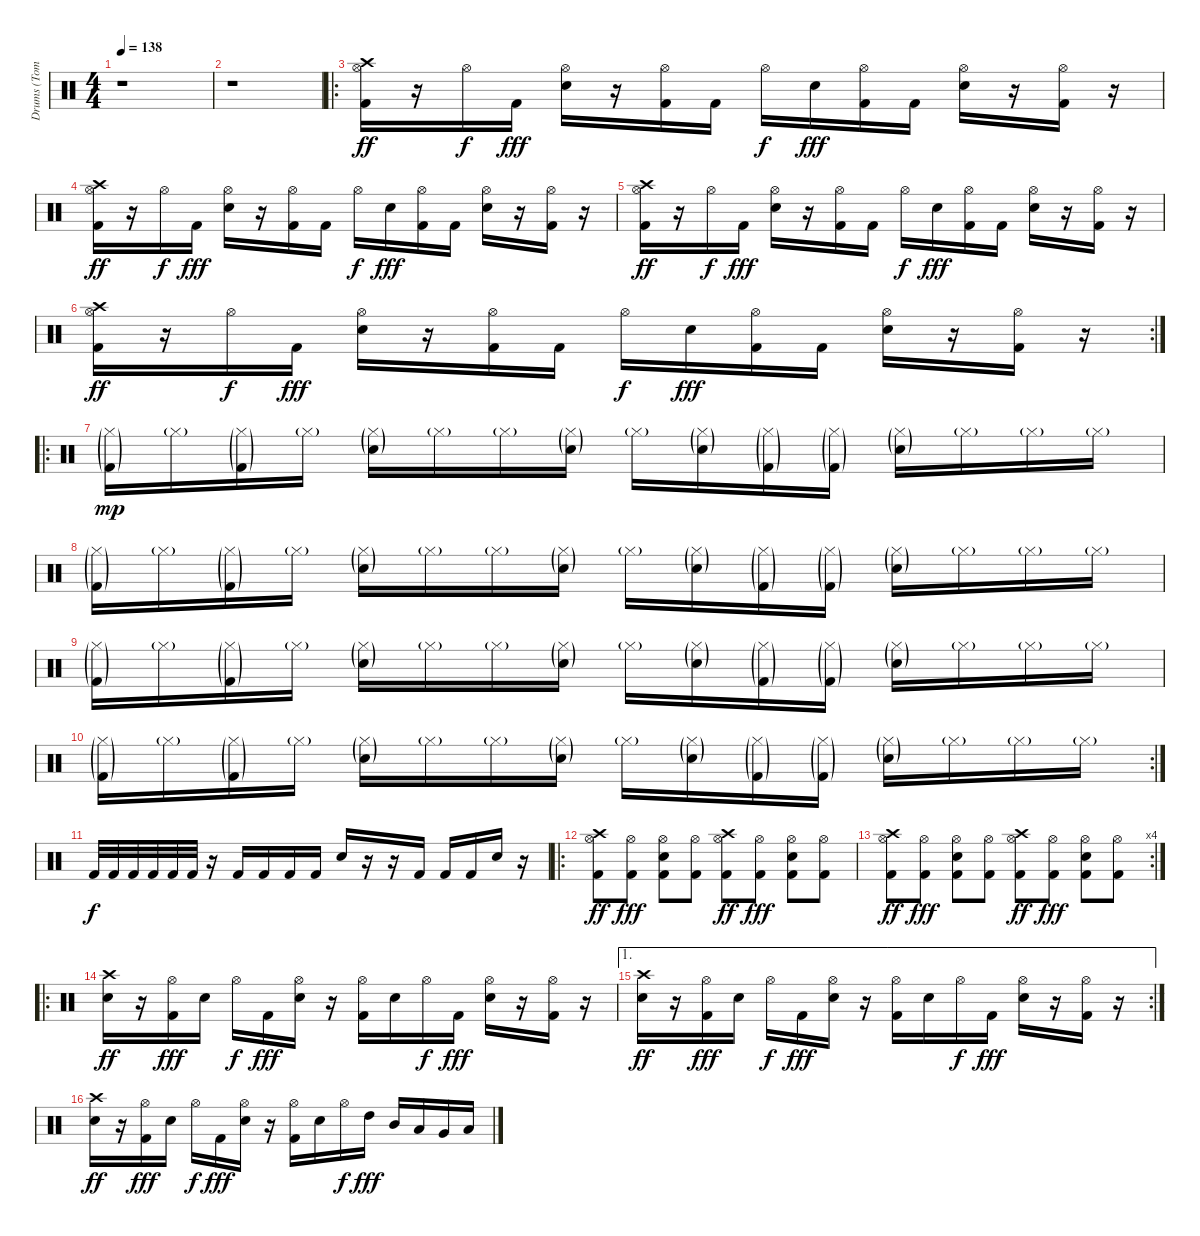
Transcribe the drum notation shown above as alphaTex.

\track ("Drums (Tommy Decker)" "Drums (Tom") {instrument percussion}
\staff {score}
\articulation defaults
\ts (4 4)
\tempo 138
\clef neutral
\ks c
r.1{dy ff} |
r.1 |
\ro
("Kick (hit) 2" "Hi-Hat (open)" "Crash high (hit)").16 r.16 "Hi-Hat (open)".16{dy f} "Kick (hit) 2".16{dy fff} ("Snare (hit) 2" "Hi-Hat (open)").16 r.16 ("Kick (hit) 2" "Hi-Hat (open)").16 "Kick (hit) 2".16 "Hi-Hat (open)".16{dy f} "Snare (hit) 2".16{dy fff} ("Kick (hit) 2" "Hi-Hat (open)").16 "Kick (hit) 2".16 ("Snare (hit) 2" "Hi-Hat (open)").16 r.16 ("Kick (hit) 2" "Hi-Hat (open)").16 r.16 |
("Kick (hit) 2" "Hi-Hat (open)" "Crash high (hit)").16{dy ff} r.16 "Hi-Hat (open)".16{dy f} "Kick (hit) 2".16{dy fff} ("Snare (hit) 2" "Hi-Hat (open)").16 r.16 ("Kick (hit) 2" "Hi-Hat (open)").16 "Kick (hit) 2".16 "Hi-Hat (open)".16{dy f} "Snare (hit) 2".16{dy fff} ("Kick (hit) 2" "Hi-Hat (open)").16 "Kick (hit) 2".16 ("Snare (hit) 2" "Hi-Hat (open)").16 r.16 ("Kick (hit) 2" "Hi-Hat (open)").16 r.16 |
("Kick (hit) 2" "Hi-Hat (open)" "Crash high (hit)").16{dy ff} r.16 "Hi-Hat (open)".16{dy f} "Kick (hit) 2".16{dy fff} ("Snare (hit) 2" "Hi-Hat (open)").16 r.16 ("Kick (hit) 2" "Hi-Hat (open)").16 "Kick (hit) 2".16 "Hi-Hat (open)".16{dy f} "Snare (hit) 2".16{dy fff} ("Kick (hit) 2" "Hi-Hat (open)").16 "Kick (hit) 2".16 ("Snare (hit) 2" "Hi-Hat (open)").16 r.16 ("Kick (hit) 2" "Hi-Hat (open)").16 r.16 |
\rc 2
("Kick (hit) 2" "Hi-Hat (open)" "Crash high (hit)").16{dy ff} r.16 "Hi-Hat (open)".16{dy f} "Kick (hit) 2".16{dy fff} ("Snare (hit) 2" "Hi-Hat (open)").16 r.16 ("Kick (hit) 2" "Hi-Hat (open)").16 "Kick (hit) 2".16 "Hi-Hat (open)".16{dy f} "Snare (hit) 2".16{dy fff} ("Kick (hit) 2" "Hi-Hat (open)").16 "Kick (hit) 2".16 ("Snare (hit) 2" "Hi-Hat (open)").16 r.16 ("Kick (hit) 2" "Hi-Hat (open)").16 r.16 |
\ro
("Kick (hit) 2"{g} "Hi-Hat (closed)"{g}).16{dy mp} "Hi-Hat (closed)"{g}.16 ("Kick (hit) 2"{g} "Hi-Hat (closed)"{g}).16 "Hi-Hat (closed)"{g}.16 ("Electric Snare (hit)"{g} "Hi-Hat (closed)"{g}).16 "Hi-Hat (closed)"{g}.16 "Hi-Hat (closed)"{g}.16 ("Electric Snare (hit)"{g} "Hi-Hat (closed)"{g}).16 "Hi-Hat (closed)"{g}.16 ("Electric Snare (hit)"{g} "Hi-Hat (closed)"{g}).16 ("Kick (hit) 2"{g} "Hi-Hat (closed)"{g}).16 ("Kick (hit) 2"{g} "Hi-Hat (closed)"{g}).16 ("Electric Snare (hit)"{g} "Hi-Hat (closed)"{g}).16 "Hi-Hat (closed)"{g}.16 "Hi-Hat (closed)"{g}.16 "Hi-Hat (closed)"{g}.16 |
("Kick (hit) 2"{g} "Hi-Hat (closed)"{g}).16 "Hi-Hat (closed)"{g}.16 ("Kick (hit) 2"{g} "Hi-Hat (closed)"{g}).16 "Hi-Hat (closed)"{g}.16 ("Electric Snare (hit)"{g} "Hi-Hat (closed)"{g}).16 "Hi-Hat (closed)"{g}.16 "Hi-Hat (closed)"{g}.16 ("Electric Snare (hit)"{g} "Hi-Hat (closed)"{g}).16 "Hi-Hat (closed)"{g}.16 ("Electric Snare (hit)"{g} "Hi-Hat (closed)"{g}).16 ("Kick (hit) 2"{g} "Hi-Hat (closed)"{g}).16 ("Kick (hit) 2"{g} "Hi-Hat (closed)"{g}).16 ("Electric Snare (hit)"{g} "Hi-Hat (closed)"{g}).16 "Hi-Hat (closed)"{g}.16 "Hi-Hat (closed)"{g}.16 "Hi-Hat (closed)"{g}.16 |
("Kick (hit) 2"{g} "Hi-Hat (closed)"{g}).16 "Hi-Hat (closed)"{g}.16 ("Kick (hit) 2"{g} "Hi-Hat (closed)"{g}).16 "Hi-Hat (closed)"{g}.16 ("Electric Snare (hit)"{g} "Hi-Hat (closed)"{g}).16 "Hi-Hat (closed)"{g}.16 "Hi-Hat (closed)"{g}.16 ("Electric Snare (hit)"{g} "Hi-Hat (closed)"{g}).16 "Hi-Hat (closed)"{g}.16 ("Electric Snare (hit)"{g} "Hi-Hat (closed)"{g}).16 ("Kick (hit) 2"{g} "Hi-Hat (closed)"{g}).16 ("Kick (hit) 2"{g} "Hi-Hat (closed)"{g}).16 ("Electric Snare (hit)"{g} "Hi-Hat (closed)"{g}).16 "Hi-Hat (closed)"{g}.16 "Hi-Hat (closed)"{g}.16 "Hi-Hat (closed)"{g}.16 |
\rc 2
("Kick (hit) 2"{g} "Hi-Hat (closed)"{g}).16 "Hi-Hat (closed)"{g}.16 ("Kick (hit) 2"{g} "Hi-Hat (closed)"{g}).16 "Hi-Hat (closed)"{g}.16 ("Electric Snare (hit)"{g} "Hi-Hat (closed)"{g}).16 "Hi-Hat (closed)"{g}.16 "Hi-Hat (closed)"{g}.16 ("Electric Snare (hit)"{g} "Hi-Hat (closed)"{g}).16 "Hi-Hat (closed)"{g}.16 ("Electric Snare (hit)"{g} "Hi-Hat (closed)"{g}).16 ("Kick (hit) 2"{g} "Hi-Hat (closed)"{g}).16 ("Kick (hit) 2"{g} "Hi-Hat (closed)"{g}).16 ("Electric Snare (hit)"{g} "Hi-Hat (closed)"{g}).16 "Hi-Hat (closed)"{g}.16 "Hi-Hat (closed)"{g}.16 "Hi-Hat (closed)"{g}.16 |
"Kick (hit) 2".32{dy f} "Kick (hit) 2".32 "Kick (hit) 2".32 "Kick (hit) 2".32 "Kick (hit) 2".32 "Kick (hit) 2".32 r.16 "Kick (hit) 2".16 "Kick (hit) 2".16 "Kick (hit) 2".16 "Kick (hit) 2".16 "Electric Snare (hit)".16 r.16 r.16 "Kick (hit) 2".16 "Kick (hit) 2".16 "Kick (hit) 2".16 "Electric Snare (hit)".16 r.16 |
\ro
("Kick (hit) 2" "Hi-Hat (open)" "Crash high (hit)").8{dy ff} ("Kick (hit) 2" "Hi-Hat (open)").8{dy fff} ("Kick (hit) 2" "Hi-Hat (open)" "Snare (hit) 2").8 ("Kick (hit) 2" "Hi-Hat (open)").8 ("Kick (hit) 2" "Hi-Hat (open)" "Crash high (hit)").8{dy ff} ("Kick (hit) 2" "Hi-Hat (open)").8{dy fff} ("Kick (hit) 2" "Hi-Hat (open)" "Snare (hit) 2").8 ("Kick (hit) 2" "Hi-Hat (open)").8 |
\rc 4
("Kick (hit) 2" "Hi-Hat (open)" "Crash high (hit)").8{dy ff} ("Kick (hit) 2" "Hi-Hat (open)").8{dy fff} ("Kick (hit) 2" "Hi-Hat (open)" "Snare (hit) 2").8 ("Kick (hit) 2" "Hi-Hat (open)").8 ("Kick (hit) 2" "Hi-Hat (open)" "Crash high (hit)").8{dy ff} ("Kick (hit) 2" "Hi-Hat (open)").8{dy fff} ("Kick (hit) 2" "Hi-Hat (open)" "Snare (hit) 2").8 ("Kick (hit) 2" "Hi-Hat (open)").8 |
\ro
("Snare (hit) 2" "Crash high (hit)").16{dy ff} r.16 ("Kick (hit) 2" "Hi-Hat (open)").16{dy fff} "Snare (hit) 2".16 "Hi-Hat (open)".16{dy f} "Kick (hit) 2".16{dy fff} ("Snare (hit) 2" "Hi-Hat (open)").16 r.16 ("Kick (hit) 2" "Hi-Hat (open)").16 "Snare (hit) 2".16 "Hi-Hat (open)".16{dy f} "Kick (hit) 2".16{dy fff} ("Snare (hit) 2" "Hi-Hat (open)").16 r.16 ("Kick (hit) 2" "Hi-Hat (open)").16 r.16 |
\ae 1
\rc 2
("Snare (hit) 2" "Crash high (hit)").16{dy ff} r.16 ("Kick (hit) 2" "Hi-Hat (open)").16{dy fff} "Snare (hit) 2".16 "Hi-Hat (open)".16{dy f} "Kick (hit) 2".16{dy fff} ("Snare (hit) 2" "Hi-Hat (open)").16 r.16 ("Kick (hit) 2" "Hi-Hat (open)").16 "Snare (hit) 2".16 "Hi-Hat (open)".16{dy f} "Kick (hit) 2".16{dy fff} ("Snare (hit) 2" "Hi-Hat (open)").16 r.16 ("Kick (hit) 2" "Hi-Hat (open)").16 r.16 |
("Snare (hit) 2" "Crash high (hit)").16{dy ff} r.16 ("Kick (hit) 2" "Hi-Hat (open)").16{dy fff} "Snare (hit) 2".16 "Hi-Hat (open)".16{dy f} "Kick (hit) 2".16{dy fff} ("Snare (hit) 2" "Hi-Hat (open)").16 r.16 ("Kick (hit) 2" "Hi-Hat (open)").16 "Snare (hit) 2".16 "Hi-Hat (open)".16{dy f} "High Tom (hit)".16{dy fff} "Mid Tom (hit)".16 "Low Tom (hit)".16 "Very Low Tom (hit)".16 "Low Floor Tom (hit)".16
